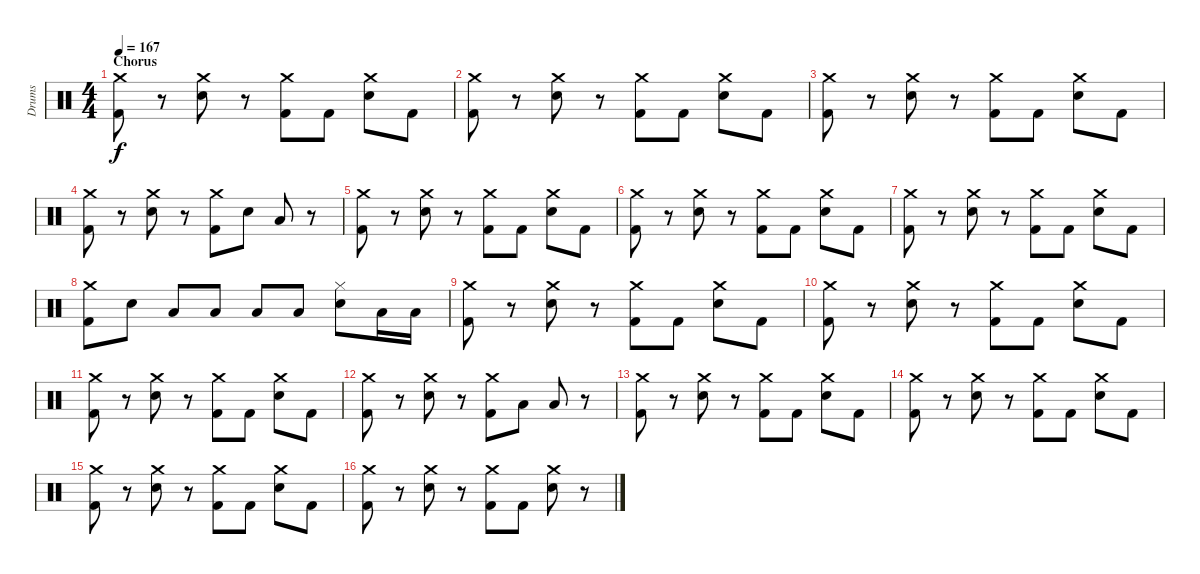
\track ("Drums" "Drums") {instrument percussion}
\staff {score}
\articulation defaults
\ts (4 4)
\section ("" "Chorus")
\tempo 167
\clef neutral
\ks c
("Crash medium (hit)" "Kick (hit) 2").8{dy f} r.8 ("Crash medium (hit)" "Electric Snare (hit)").8 r.8 ("Crash medium (hit)" "Kick (hit) 2").8 "Kick (hit) 2".8 ("Crash medium (hit)" "Electric Snare (hit)").8 "Kick (hit) 2".8 |
("Crash medium (hit)" "Kick (hit) 2").8 r.8 ("Crash medium (hit)" "Electric Snare (hit)").8 r.8 ("Crash medium (hit)" "Kick (hit) 2").8 "Kick (hit) 2".8 ("Crash medium (hit)" "Electric Snare (hit)").8 "Kick (hit) 2".8 |
("Crash medium (hit)" "Kick (hit) 2").8 r.8 ("Crash medium (hit)" "Electric Snare (hit)").8 r.8 ("Crash medium (hit)" "Kick (hit) 2").8 "Kick (hit) 2".8 ("Crash medium (hit)" "Electric Snare (hit)").8 "Kick (hit) 2".8 |
("Crash medium (hit)" "Kick (hit) 2").8 r.8 ("Crash medium (hit)" "Electric Snare (hit)").8 r.8 ("Crash medium (hit)" "Kick (hit) 2").8 "Electric Snare (hit)".8 "Low Tom (hit)".8 r.8 |
("Crash medium (hit)" "Kick (hit) 2").8 r.8 ("Crash medium (hit)" "Electric Snare (hit)").8 r.8 ("Crash medium (hit)" "Kick (hit) 2").8 "Kick (hit) 2".8 ("Crash medium (hit)" "Electric Snare (hit)").8 "Kick (hit) 2".8 |
("Crash medium (hit)" "Kick (hit) 2").8 r.8 ("Crash medium (hit)" "Electric Snare (hit)").8 r.8 ("Crash medium (hit)" "Kick (hit) 2").8 "Kick (hit) 2".8 ("Crash medium (hit)" "Electric Snare (hit)").8 "Kick (hit) 2".8 |
("Crash medium (hit)" "Kick (hit) 2").8 r.8 ("Crash medium (hit)" "Electric Snare (hit)").8 r.8 ("Crash medium (hit)" "Kick (hit) 2").8 "Kick (hit) 2".8 ("Crash medium (hit)" "Electric Snare (hit)").8 "Kick (hit) 2".8 |
("Crash medium (hit)" "Kick (hit) 2").8 "Electric Snare (hit)".8 "Low Tom (hit)".8 "Low Tom (hit)".8 "Low Tom (hit)".8 "Low Tom (hit)".8 ("Hi-Hat (closed)" "Electric Snare (hit)").8 "Low Tom (hit)".16 "Low Tom (hit)".16 |
("Crash medium (hit)" "Kick (hit) 2").8 r.8 ("Crash medium (hit)" "Electric Snare (hit)").8 r.8 ("Crash medium (hit)" "Kick (hit) 2").8 "Kick (hit) 2".8 ("Crash medium (hit)" "Electric Snare (hit)").8 "Kick (hit) 2".8 |
("Crash medium (hit)" "Kick (hit) 2").8 r.8 ("Crash medium (hit)" "Electric Snare (hit)").8 r.8 ("Crash medium (hit)" "Kick (hit) 2").8 "Kick (hit) 2".8 ("Crash medium (hit)" "Electric Snare (hit)").8 "Kick (hit) 2".8 |
("Crash medium (hit)" "Kick (hit) 2").8 r.8 ("Crash medium (hit)" "Electric Snare (hit)").8 r.8 ("Crash medium (hit)" "Kick (hit) 2").8 "Kick (hit) 2".8 ("Crash medium (hit)" "Electric Snare (hit)").8 "Kick (hit) 2".8 |
("Crash medium (hit)" "Kick (hit) 2").8 r.8 ("Crash medium (hit)" "Electric Snare (hit)").8 r.8 ("Crash medium (hit)" "Kick (hit) 2").8 "Low Tom (hit)".8 "Low Tom (hit)".8 r.8 |
("Crash medium (hit)" "Kick (hit) 2").8 r.8 ("Crash medium (hit)" "Electric Snare (hit)").8 r.8 ("Crash medium (hit)" "Kick (hit) 2").8 "Kick (hit) 2".8 ("Crash medium (hit)" "Electric Snare (hit)").8 "Kick (hit) 2".8 |
("Crash medium (hit)" "Kick (hit) 2").8 r.8 ("Crash medium (hit)" "Electric Snare (hit)").8 r.8 ("Crash medium (hit)" "Kick (hit) 2").8 "Kick (hit) 2".8 ("Crash medium (hit)" "Electric Snare (hit)").8 "Kick (hit) 2".8 |
("Crash medium (hit)" "Kick (hit) 2").8 r.8 ("Crash medium (hit)" "Electric Snare (hit)").8 r.8 ("Crash medium (hit)" "Kick (hit) 2").8 "Kick (hit) 2".8 ("Crash medium (hit)" "Electric Snare (hit)").8 "Kick (hit) 2".8 |
("Crash medium (hit)" "Kick (hit) 2").8 r.8 ("Crash medium (hit)" "Electric Snare (hit)").8 r.8 ("Crash medium (hit)" "Kick (hit) 2").8 "Kick (hit) 2".8 ("Crash medium (hit)" "Electric Snare (hit)").8 r.8
